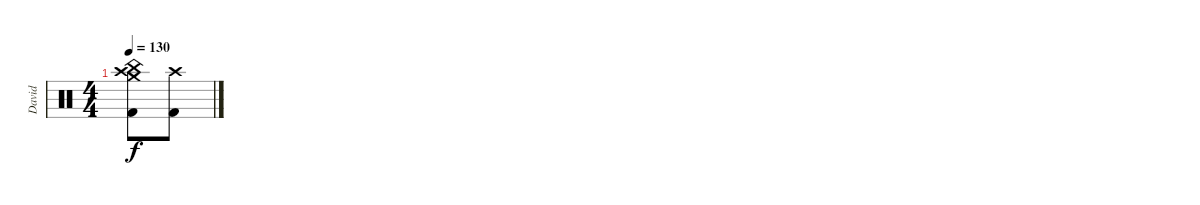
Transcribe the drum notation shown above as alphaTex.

\track ("David" "David") {instrument percussion}
\staff {score}
\articulation defaults
\ts (4 4)
\tempo 130
\clef neutral
\ks c
("Crash high (hit)" "China (hit)" "Crash medium (hit)" "Kick (hit) 2").8{dy f} ("Crash high (hit)" "Kick (hit) 2").8
